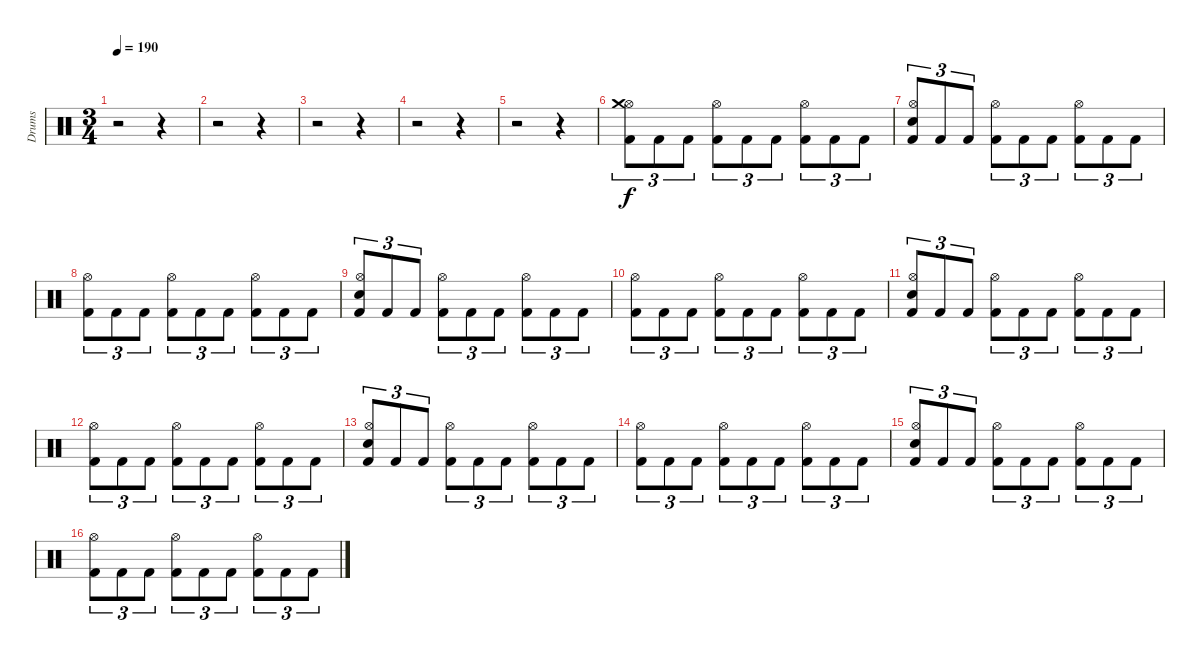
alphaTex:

\track ("Drums" "Drums") {instrument percussion}
\staff {score}
\articulation defaults
\ts (3 4)
\tempo 190
\clef neutral
\ks c
r.2{dy f} r.4 |
r.2 r.4 |
r.2 r.4 |
r.2 r.4 |
r.2 r.4 |
("Kick (hit) 2" "Hi-Hat (open)" "Crash medium (hit)").8{tu (3 2)} "Kick (hit) 2".8{tu (3 2)} "Kick (hit) 2".8{tu (3 2)} ("Kick (hit) 2" "Hi-Hat (open)").8{tu (3 2)} "Kick (hit) 2".8{tu (3 2)} "Kick (hit) 2".8{tu (3 2)} ("Kick (hit) 2" "Hi-Hat (open)").8{tu (3 2)} "Kick (hit) 2".8{tu (3 2)} "Kick (hit) 2".8{tu (3 2)} |
("Kick (hit) 2" "Electric Snare (hit)" "Hi-Hat (open)").8{tu (3 2)} "Kick (hit) 2".8{tu (3 2)} "Kick (hit) 2".8{tu (3 2)} ("Kick (hit) 2" "Hi-Hat (open)").8{tu (3 2)} "Kick (hit) 2".8{tu (3 2)} "Kick (hit) 2".8{tu (3 2)} ("Kick (hit) 2" "Hi-Hat (open)").8{tu (3 2)} "Kick (hit) 2".8{tu (3 2)} "Kick (hit) 2".8{tu (3 2)} |
("Kick (hit) 2" "Hi-Hat (open)").8{tu (3 2)} "Kick (hit) 2".8{tu (3 2)} "Kick (hit) 2".8{tu (3 2)} ("Kick (hit) 2" "Hi-Hat (open)").8{tu (3 2)} "Kick (hit) 2".8{tu (3 2)} "Kick (hit) 2".8{tu (3 2)} ("Kick (hit) 2" "Hi-Hat (open)").8{tu (3 2)} "Kick (hit) 2".8{tu (3 2)} "Kick (hit) 2".8{tu (3 2)} |
("Kick (hit) 2" "Electric Snare (hit)" "Hi-Hat (open)").8{tu (3 2)} "Kick (hit) 2".8{tu (3 2)} "Kick (hit) 2".8{tu (3 2)} ("Kick (hit) 2" "Hi-Hat (open)").8{tu (3 2)} "Kick (hit) 2".8{tu (3 2)} "Kick (hit) 2".8{tu (3 2)} ("Kick (hit) 2" "Hi-Hat (open)").8{tu (3 2)} "Kick (hit) 2".8{tu (3 2)} "Kick (hit) 2".8{tu (3 2)} |
("Kick (hit) 2" "Hi-Hat (open)").8{tu (3 2)} "Kick (hit) 2".8{tu (3 2)} "Kick (hit) 2".8{tu (3 2)} ("Kick (hit) 2" "Hi-Hat (open)").8{tu (3 2)} "Kick (hit) 2".8{tu (3 2)} "Kick (hit) 2".8{tu (3 2)} ("Kick (hit) 2" "Hi-Hat (open)").8{tu (3 2)} "Kick (hit) 2".8{tu (3 2)} "Kick (hit) 2".8{tu (3 2)} |
("Kick (hit) 2" "Electric Snare (hit)" "Hi-Hat (open)").8{tu (3 2)} "Kick (hit) 2".8{tu (3 2)} "Kick (hit) 2".8{tu (3 2)} ("Kick (hit) 2" "Hi-Hat (open)").8{tu (3 2)} "Kick (hit) 2".8{tu (3 2)} "Kick (hit) 2".8{tu (3 2)} ("Kick (hit) 2" "Hi-Hat (open)").8{tu (3 2)} "Kick (hit) 2".8{tu (3 2)} "Kick (hit) 2".8{tu (3 2)} |
("Kick (hit) 2" "Hi-Hat (open)").8{tu (3 2)} "Kick (hit) 2".8{tu (3 2)} "Kick (hit) 2".8{tu (3 2)} ("Kick (hit) 2" "Hi-Hat (open)").8{tu (3 2)} "Kick (hit) 2".8{tu (3 2)} "Kick (hit) 2".8{tu (3 2)} ("Kick (hit) 2" "Hi-Hat (open)").8{tu (3 2)} "Kick (hit) 2".8{tu (3 2)} "Kick (hit) 2".8{tu (3 2)} |
("Kick (hit) 2" "Electric Snare (hit)" "Hi-Hat (open)").8{tu (3 2)} "Kick (hit) 2".8{tu (3 2)} "Kick (hit) 2".8{tu (3 2)} ("Kick (hit) 2" "Hi-Hat (open)").8{tu (3 2)} "Kick (hit) 2".8{tu (3 2)} "Kick (hit) 2".8{tu (3 2)} ("Kick (hit) 2" "Hi-Hat (open)").8{tu (3 2)} "Kick (hit) 2".8{tu (3 2)} "Kick (hit) 2".8{tu (3 2)} |
("Kick (hit) 2" "Hi-Hat (open)").8{tu (3 2)} "Kick (hit) 2".8{tu (3 2)} "Kick (hit) 2".8{tu (3 2)} ("Kick (hit) 2" "Hi-Hat (open)").8{tu (3 2)} "Kick (hit) 2".8{tu (3 2)} "Kick (hit) 2".8{tu (3 2)} ("Kick (hit) 2" "Hi-Hat (open)").8{tu (3 2)} "Kick (hit) 2".8{tu (3 2)} "Kick (hit) 2".8{tu (3 2)} |
("Kick (hit) 2" "Electric Snare (hit)" "Hi-Hat (open)").8{tu (3 2)} "Kick (hit) 2".8{tu (3 2)} "Kick (hit) 2".8{tu (3 2)} ("Kick (hit) 2" "Hi-Hat (open)").8{tu (3 2)} "Kick (hit) 2".8{tu (3 2)} "Kick (hit) 2".8{tu (3 2)} ("Kick (hit) 2" "Hi-Hat (open)").8{tu (3 2)} "Kick (hit) 2".8{tu (3 2)} "Kick (hit) 2".8{tu (3 2)} |
("Kick (hit) 2" "Hi-Hat (open)").8{tu (3 2)} "Kick (hit) 2".8{tu (3 2)} "Kick (hit) 2".8{tu (3 2)} ("Kick (hit) 2" "Hi-Hat (open)").8{tu (3 2)} "Kick (hit) 2".8{tu (3 2)} "Kick (hit) 2".8{tu (3 2)} ("Kick (hit) 2" "Hi-Hat (open)").8{tu (3 2)} "Kick (hit) 2".8{tu (3 2)} "Kick (hit) 2".8{tu (3 2)}
